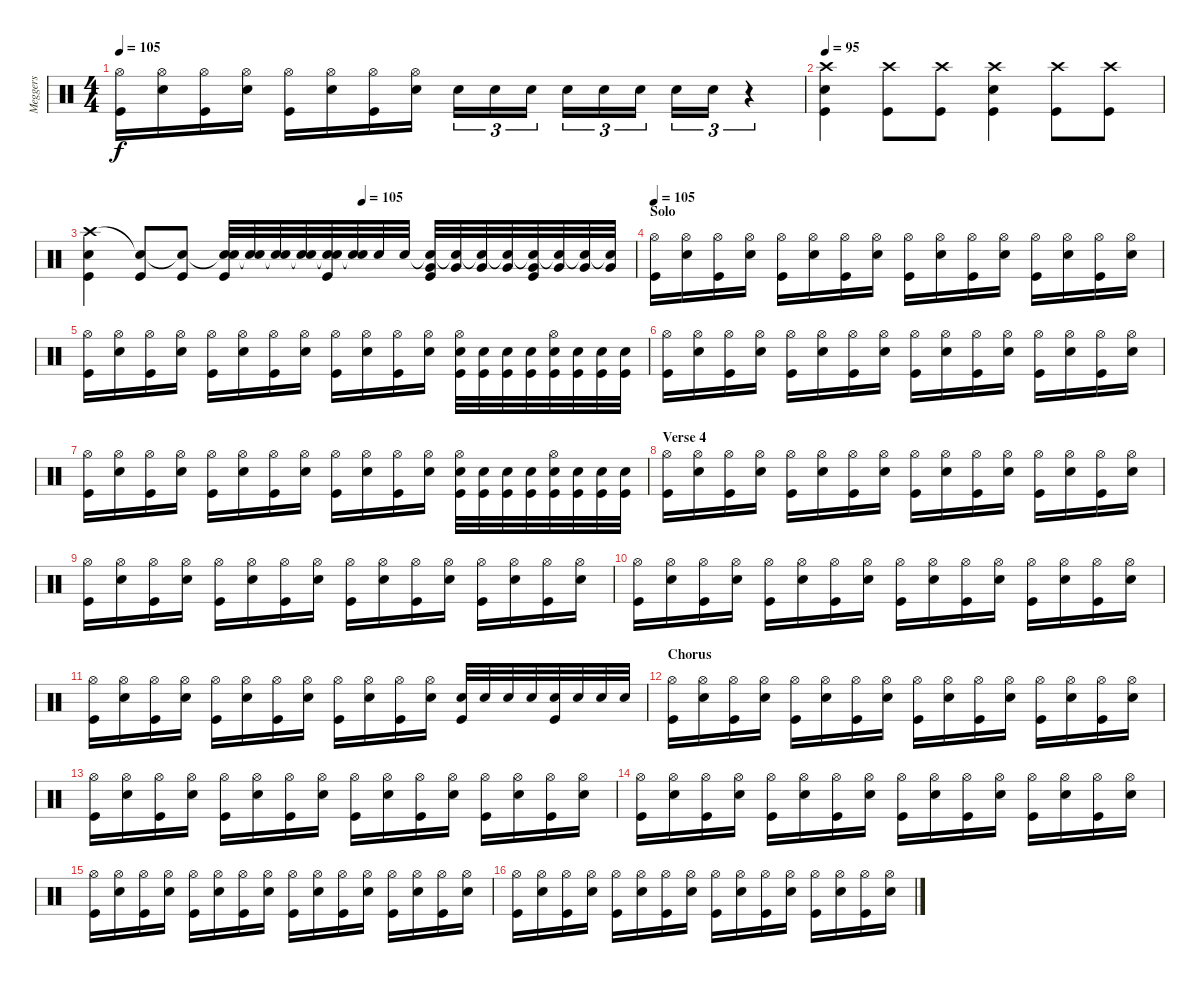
\track ("Meggers" "Meggers") {instrument percussion}
\staff {score}
\articulation defaults
\ts (4 4)
\tempo 105
\clef neutral
\ks c
("Hi-Hat (open)" "Kick (hit)").16{dy f} ("Hi-Hat (open)" "Snare (hit) 2").16 ("Hi-Hat (open)" "Kick (hit)").16 ("Hi-Hat (open)" "Snare (hit) 2").16 ("Hi-Hat (open)" "Kick (hit)").16 ("Hi-Hat (open)" "Snare (hit) 2").16 ("Hi-Hat (open)" "Kick (hit)").16 ("Hi-Hat (open)" "Snare (hit) 2").16 "Snare (hit) 2".16{tu (3 2)} "Snare (hit) 2".16{tu (3 2)} "Snare (hit) 2".16{tu (3 2)} "Snare (hit) 2".16{tu (3 2)} "Snare (hit) 2".16{tu (3 2)} "Snare (hit) 2".16{tu (3 2)} "Snare (hit) 2".16{tu (3 2)} "Snare (hit) 2".16{tu (3 2)} r.4{tu (3 2)} |
\tempo 95
("Crash high (hit)" "Snare (hit) 2" "Kick (hit)").4 ("Crash high (hit)" "Kick (hit)").8 ("Crash high (hit)" "Kick (hit)").8 ("Crash high (hit)" "Snare (hit) 2" "Kick (hit)").4 ("Crash high (hit)" "Kick (hit)").8 ("Crash high (hit)" "Kick (hit)").8 |
\tempo (105 0.5)
("Crash high (hit)" "Snare (hit) 2" "Kick (hit)").4 ("Snare (hit)"{t} "Kick (hit)").8 ("Snare (hit)"{t} "Kick (hit)").8 ("Snare (hit)"{t} "Snare (hit) 2" "Kick (hit)").32 ("Snare (hit)"{t} "Snare (hit) 2").32 ("Snare (hit)"{t} "Snare (hit) 2").32 ("Snare (hit)"{t} "Snare (hit) 2").32 ("Snare (hit)"{t} "Snare (hit) 2" "Kick (hit)").32 ("Snare (hit)"{t} "Snare (hit) 2").32 "Snare (hit) 2".32 "Snare (hit) 2".32 ("Snare (hit)"{t} "Very Low Tom (hit)" "Kick (hit)").32 ("Snare (hit)"{t} "Very Low Tom (hit)").32 ("Snare (hit)"{t} "Very Low Tom (hit)").32 ("Snare (hit)"{t} "Very Low Tom (hit)").32 ("Snare (hit)"{t} "Very Low Tom (hit)" "Kick (hit)").32 ("Snare (hit)"{t} "Very Low Tom (hit)").32 ("Snare (hit)"{t} "Very Low Tom (hit)").32 ("Snare (hit)"{t} "Very Low Tom (hit)").32 |
\section ("" "Solo")
\tempo 105
("Hi-Hat (open)" "Kick (hit)").16 ("Hi-Hat (open)" "Snare (hit) 2").16 ("Hi-Hat (open)" "Kick (hit)").16 ("Hi-Hat (open)" "Snare (hit) 2").16 ("Hi-Hat (open)" "Kick (hit)").16 ("Hi-Hat (open)" "Snare (hit) 2").16 ("Hi-Hat (open)" "Kick (hit)").16 ("Hi-Hat (open)" "Snare (hit) 2").16 ("Hi-Hat (open)" "Kick (hit)").16 ("Hi-Hat (open)" "Snare (hit) 2").16 ("Hi-Hat (open)" "Kick (hit)").16 ("Hi-Hat (open)" "Snare (hit) 2").16 ("Hi-Hat (open)" "Kick (hit)").16 ("Hi-Hat (open)" "Snare (hit) 2").16 ("Hi-Hat (open)" "Kick (hit)").16 ("Hi-Hat (open)" "Snare (hit) 2").16 |
("Hi-Hat (open)" "Kick (hit)").16 ("Hi-Hat (open)" "Snare (hit) 2").16 ("Hi-Hat (open)" "Kick (hit)").16 ("Hi-Hat (open)" "Snare (hit) 2").16 ("Hi-Hat (open)" "Kick (hit)").16 ("Hi-Hat (open)" "Snare (hit) 2").16 ("Hi-Hat (open)" "Kick (hit)").16 ("Hi-Hat (open)" "Snare (hit) 2").16 ("Hi-Hat (open)" "Kick (hit)").16 ("Hi-Hat (open)" "Snare (hit) 2").16 ("Hi-Hat (open)" "Kick (hit)").16 ("Hi-Hat (open)" "Snare (hit) 2").16 ("Hi-Hat (open)" "Snare (hit) 2" "Kick (hit)").32 ("Snare (hit) 2" "Kick (hit)").32 ("Snare (hit) 2" "Kick (hit)").32 ("Snare (hit) 2" "Kick (hit)").32 ("Hi-Hat (open)" "Snare (hit) 2" "Kick (hit)").32 ("Snare (hit) 2" "Kick (hit)").32 ("Snare (hit) 2" "Kick (hit)").32 ("Snare (hit) 2" "Kick (hit)").32 |
("Hi-Hat (open)" "Kick (hit)").16 ("Hi-Hat (open)" "Snare (hit) 2").16 ("Hi-Hat (open)" "Kick (hit)").16 ("Hi-Hat (open)" "Snare (hit) 2").16 ("Hi-Hat (open)" "Kick (hit)").16 ("Hi-Hat (open)" "Snare (hit) 2").16 ("Hi-Hat (open)" "Kick (hit)").16 ("Hi-Hat (open)" "Snare (hit) 2").16 ("Hi-Hat (open)" "Kick (hit)").16 ("Hi-Hat (open)" "Snare (hit) 2").16 ("Hi-Hat (open)" "Kick (hit)").16 ("Hi-Hat (open)" "Snare (hit) 2").16 ("Hi-Hat (open)" "Kick (hit)").16 ("Hi-Hat (open)" "Snare (hit) 2").16 ("Hi-Hat (open)" "Kick (hit)").16 ("Hi-Hat (open)" "Snare (hit) 2").16 |
("Hi-Hat (open)" "Kick (hit)").16 ("Hi-Hat (open)" "Snare (hit) 2").16 ("Hi-Hat (open)" "Kick (hit)").16 ("Hi-Hat (open)" "Snare (hit) 2").16 ("Hi-Hat (open)" "Kick (hit)").16 ("Hi-Hat (open)" "Snare (hit) 2").16 ("Hi-Hat (open)" "Kick (hit)").16 ("Hi-Hat (open)" "Snare (hit) 2").16 ("Hi-Hat (open)" "Kick (hit)").16 ("Hi-Hat (open)" "Snare (hit) 2").16 ("Hi-Hat (open)" "Kick (hit)").16 ("Hi-Hat (open)" "Snare (hit) 2").16 ("Hi-Hat (open)" "Snare (hit) 2" "Kick (hit)").32 ("Snare (hit) 2" "Kick (hit)").32 ("Snare (hit) 2" "Kick (hit)").32 ("Snare (hit) 2" "Kick (hit)").32 ("Hi-Hat (open)" "Snare (hit) 2" "Kick (hit)").32 ("Snare (hit) 2" "Kick (hit)").32 ("Snare (hit) 2" "Kick (hit)").32 ("Snare (hit) 2" "Kick (hit)").32 |
\section ("" "Verse 4")
("Hi-Hat (open)" "Kick (hit)").16 ("Hi-Hat (open)" "Snare (hit) 2").16 ("Hi-Hat (open)" "Kick (hit)").16 ("Hi-Hat (open)" "Snare (hit) 2").16 ("Hi-Hat (open)" "Kick (hit)").16 ("Hi-Hat (open)" "Snare (hit) 2").16 ("Hi-Hat (open)" "Kick (hit)").16 ("Hi-Hat (open)" "Snare (hit) 2").16 ("Hi-Hat (open)" "Kick (hit)").16 ("Hi-Hat (open)" "Snare (hit) 2").16 ("Hi-Hat (open)" "Kick (hit)").16 ("Hi-Hat (open)" "Snare (hit) 2").16 ("Hi-Hat (open)" "Kick (hit)").16 ("Hi-Hat (open)" "Snare (hit) 2").16 ("Hi-Hat (open)" "Kick (hit)").16 ("Hi-Hat (open)" "Snare (hit) 2").16 |
("Hi-Hat (open)" "Kick (hit)").16 ("Hi-Hat (open)" "Snare (hit) 2").16 ("Hi-Hat (open)" "Kick (hit)").16 ("Hi-Hat (open)" "Snare (hit) 2").16 ("Hi-Hat (open)" "Kick (hit)").16 ("Hi-Hat (open)" "Snare (hit) 2").16 ("Hi-Hat (open)" "Kick (hit)").16 ("Hi-Hat (open)" "Snare (hit) 2").16 ("Hi-Hat (open)" "Kick (hit)").16 ("Hi-Hat (open)" "Snare (hit) 2").16 ("Hi-Hat (open)" "Kick (hit)").16 ("Hi-Hat (open)" "Snare (hit) 2").16 ("Hi-Hat (open)" "Kick (hit)").16 ("Hi-Hat (open)" "Snare (hit) 2").16 ("Hi-Hat (open)" "Kick (hit)").16 ("Hi-Hat (open)" "Snare (hit) 2").16 |
("Hi-Hat (open)" "Kick (hit)").16 ("Hi-Hat (open)" "Snare (hit) 2").16 ("Hi-Hat (open)" "Kick (hit)").16 ("Hi-Hat (open)" "Snare (hit) 2").16 ("Hi-Hat (open)" "Kick (hit)").16 ("Hi-Hat (open)" "Snare (hit) 2").16 ("Hi-Hat (open)" "Kick (hit)").16 ("Hi-Hat (open)" "Snare (hit) 2").16 ("Hi-Hat (open)" "Kick (hit)").16 ("Hi-Hat (open)" "Snare (hit) 2").16 ("Hi-Hat (open)" "Kick (hit)").16 ("Hi-Hat (open)" "Snare (hit) 2").16 ("Hi-Hat (open)" "Kick (hit)").16 ("Hi-Hat (open)" "Snare (hit) 2").16 ("Hi-Hat (open)" "Kick (hit)").16 ("Hi-Hat (open)" "Snare (hit) 2").16 |
("Hi-Hat (open)" "Kick (hit)").16 ("Hi-Hat (open)" "Snare (hit) 2").16 ("Hi-Hat (open)" "Kick (hit)").16 ("Hi-Hat (open)" "Snare (hit) 2").16 ("Hi-Hat (open)" "Kick (hit)").16 ("Hi-Hat (open)" "Snare (hit) 2").16 ("Hi-Hat (open)" "Kick (hit)").16 ("Hi-Hat (open)" "Snare (hit) 2").16 ("Hi-Hat (open)" "Kick (hit)").16 ("Hi-Hat (open)" "Snare (hit) 2").16 ("Hi-Hat (open)" "Kick (hit)").16 ("Hi-Hat (open)" "Snare (hit) 2").16 ("Snare (hit) 2" "Kick (hit)").32 "Snare (hit) 2".32 "Snare (hit) 2".32 "Snare (hit) 2".32 ("Snare (hit) 2" "Kick (hit)").32 "Snare (hit) 2".32 "Snare (hit) 2".32 "Snare (hit) 2".32 |
\section ("" "Chorus")
("Hi-Hat (open)" "Kick (hit)").16 ("Hi-Hat (open)" "Snare (hit) 2").16 ("Hi-Hat (open)" "Kick (hit)").16 ("Hi-Hat (open)" "Snare (hit) 2").16 ("Hi-Hat (open)" "Kick (hit)").16 ("Hi-Hat (open)" "Snare (hit) 2").16 ("Hi-Hat (open)" "Kick (hit)").16 ("Hi-Hat (open)" "Snare (hit) 2").16 ("Hi-Hat (open)" "Kick (hit)").16 ("Hi-Hat (open)" "Snare (hit) 2").16 ("Hi-Hat (open)" "Kick (hit)").16 ("Hi-Hat (open)" "Snare (hit) 2").16 ("Hi-Hat (open)" "Kick (hit)").16 ("Hi-Hat (open)" "Snare (hit) 2").16 ("Hi-Hat (open)" "Kick (hit)").16 ("Hi-Hat (open)" "Snare (hit) 2").16 |
("Hi-Hat (open)" "Kick (hit)").16 ("Hi-Hat (open)" "Snare (hit) 2").16 ("Hi-Hat (open)" "Kick (hit)").16 ("Hi-Hat (open)" "Snare (hit) 2").16 ("Hi-Hat (open)" "Kick (hit)").16 ("Hi-Hat (open)" "Snare (hit) 2").16 ("Hi-Hat (open)" "Kick (hit)").16 ("Hi-Hat (open)" "Snare (hit) 2").16 ("Hi-Hat (open)" "Kick (hit)").16 ("Hi-Hat (open)" "Snare (hit) 2").16 ("Hi-Hat (open)" "Kick (hit)").16 ("Hi-Hat (open)" "Snare (hit) 2").16 ("Hi-Hat (open)" "Kick (hit)").16 ("Hi-Hat (open)" "Snare (hit) 2").16 ("Hi-Hat (open)" "Kick (hit)").16 ("Hi-Hat (open)" "Snare (hit) 2").16 |
("Hi-Hat (open)" "Kick (hit)").16 ("Hi-Hat (open)" "Snare (hit) 2").16 ("Hi-Hat (open)" "Kick (hit)").16 ("Hi-Hat (open)" "Snare (hit) 2").16 ("Hi-Hat (open)" "Kick (hit)").16 ("Hi-Hat (open)" "Snare (hit) 2").16 ("Hi-Hat (open)" "Kick (hit)").16 ("Hi-Hat (open)" "Snare (hit) 2").16 ("Hi-Hat (open)" "Kick (hit)").16 ("Hi-Hat (open)" "Snare (hit) 2").16 ("Hi-Hat (open)" "Kick (hit)").16 ("Hi-Hat (open)" "Snare (hit) 2").16 ("Hi-Hat (open)" "Kick (hit)").16 ("Hi-Hat (open)" "Snare (hit) 2").16 ("Hi-Hat (open)" "Kick (hit)").16 ("Hi-Hat (open)" "Snare (hit) 2").16 |
("Hi-Hat (open)" "Kick (hit)").16 ("Hi-Hat (open)" "Snare (hit) 2").16 ("Hi-Hat (open)" "Kick (hit)").16 ("Hi-Hat (open)" "Snare (hit) 2").16 ("Hi-Hat (open)" "Kick (hit)").16 ("Hi-Hat (open)" "Snare (hit) 2").16 ("Hi-Hat (open)" "Kick (hit)").16 ("Hi-Hat (open)" "Snare (hit) 2").16 ("Hi-Hat (open)" "Kick (hit)").16 ("Hi-Hat (open)" "Snare (hit) 2").16 ("Hi-Hat (open)" "Kick (hit)").16 ("Hi-Hat (open)" "Snare (hit) 2").16 ("Hi-Hat (open)" "Kick (hit)").16 ("Hi-Hat (open)" "Snare (hit) 2").16 ("Hi-Hat (open)" "Kick (hit)").16 ("Hi-Hat (open)" "Snare (hit) 2").16 |
("Hi-Hat (open)" "Kick (hit)").16 ("Hi-Hat (open)" "Snare (hit) 2").16 ("Hi-Hat (open)" "Kick (hit)").16 ("Hi-Hat (open)" "Snare (hit) 2").16 ("Hi-Hat (open)" "Kick (hit)").16 ("Hi-Hat (open)" "Snare (hit) 2").16 ("Hi-Hat (open)" "Kick (hit)").16 ("Hi-Hat (open)" "Snare (hit) 2").16 ("Hi-Hat (open)" "Kick (hit)").16 ("Hi-Hat (open)" "Snare (hit) 2").16 ("Hi-Hat (open)" "Kick (hit)").16 ("Hi-Hat (open)" "Snare (hit) 2").16 ("Hi-Hat (open)" "Kick (hit)").16 ("Hi-Hat (open)" "Snare (hit) 2").16 ("Hi-Hat (open)" "Kick (hit)").16 ("Hi-Hat (open)" "Snare (hit) 2").16
